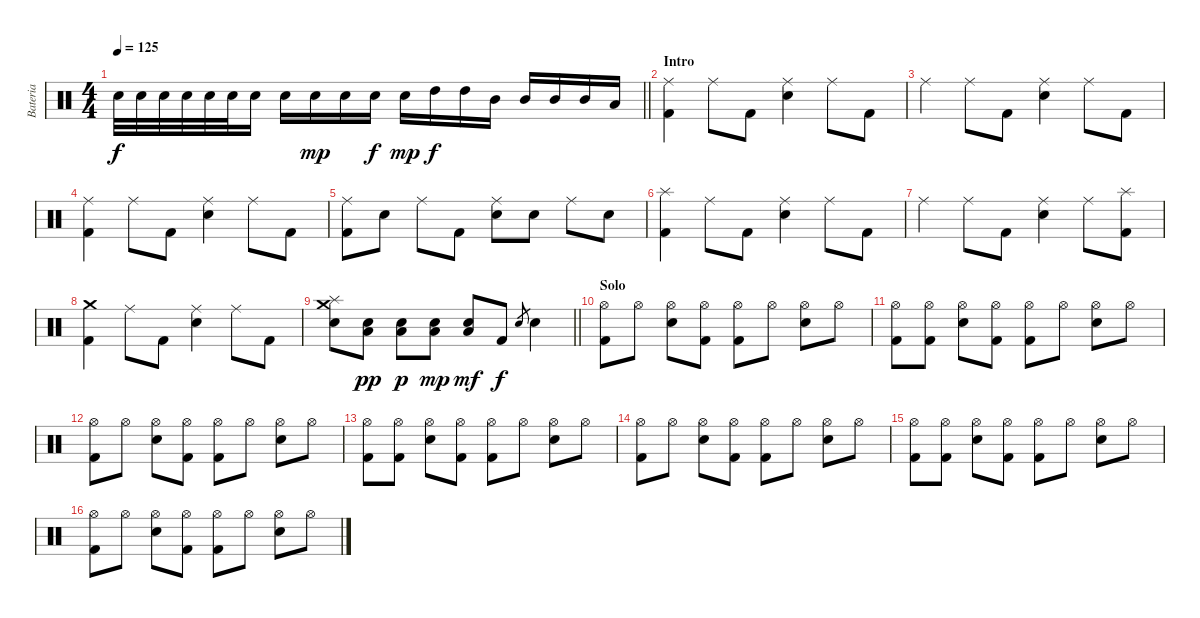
\track ("Bateria" "Bateria") {instrument percussion}
\staff {score}
\articulation defaults
\ts (4 4)
\tempo 125
\clef neutral
\barLineRight lightlight
\ks c "Electric Snare (hit)".32{dy f} "Electric Snare (hit)".32 "Electric Snare (hit)".32 "Electric Snare (hit)".32 "Electric Snare (hit)".32 "Electric Snare (hit)".32 "Electric Snare (hit)".16 "Electric Snare (hit)".16 "Electric Snare (hit)".16{dy mp} "Electric Snare (hit)".16 "Electric Snare (hit)".16{dy f} "Electric Snare (hit)".16{dy mp} "High Tom (hit)".16{dy f} "High Tom (hit)".16 "Mid Tom (hit)".16 "Mid Tom (hit)".16 "Mid Tom (hit)".16 "Mid Tom (hit)".16 "Low Floor Tom (hit)".16
|
\section ("" "Intro")
("Ride (middle)" "Kick (hit) 2").4 "Ride (middle)".8 "Kick (hit) 2".8 ("Ride (middle)" "Electric Snare (hit)").4 "Ride (middle)".8 "Kick (hit) 2".8 |
"Ride (middle)".4 "Ride (middle)".8 "Kick (hit) 2".8 ("Ride (middle)" "Electric Snare (hit)").4 "Ride (middle)".8 "Kick (hit) 2".8 |
("Ride (middle)" "Kick (hit) 2").4 "Ride (middle)".8 "Kick (hit) 2".8 ("Ride (middle)" "Electric Snare (hit)").4 "Ride (middle)".8 "Kick (hit) 2".8 |
("Ride (middle)" "Kick (hit) 2").8 "Electric Snare (hit)".8 "Ride (middle)".8 "Kick (hit) 2".8 ("Ride (middle)" "Electric Snare (hit)").8 "Electric Snare (hit)".8 "Ride (middle)".8 "Electric Snare (hit)".8 |
("Splash (hit)" "Kick (hit) 2").4 "Ride (middle)".8 "Kick (hit) 2".8 ("Ride (middle)" "Electric Snare (hit)").4 "Ride (middle)".8 "Kick (hit) 2".8 |
"Ride (middle)".4 "Ride (middle)".8 "Kick (hit) 2".8 ("Ride (middle)" "Electric Snare (hit)").4 "Ride (middle)".8 ("Splash (hit)" "Kick (hit) 2").8 |
("Crash medium (hit)" "Kick (hit) 2").4 "Ride (middle)".8 "Kick (hit) 2".8 ("Ride (middle)" "Electric Snare (hit)").4 "Ride (middle)".8 "Kick (hit) 2".8 |
\barLineRight lightlight
("Electric Snare (hit)" "Splash (hit)" "Crash medium (hit)").8 ("Electric Snare (hit)" "Low Floor Tom (hit)").8{dy pp} ("Electric Snare (hit)" "Low Floor Tom (hit)").8{dy p} ("Electric Snare (hit)" "Low Floor Tom (hit)").8{dy mp} ("Electric Snare (hit)" "Low Floor Tom (hit)").8{dy mf} "Kick (hit) 2".8{dy f} "Electric Snare (hit)".8{gr} "Electric Snare (hit)".4 |
\section ("" "Solo")
("Hi-Hat (open)" "Kick (hit) 2").8 "Hi-Hat (open)".8 ("Hi-Hat (open)" "Electric Snare (hit)").8 ("Hi-Hat (open)" "Kick (hit) 2").8 ("Hi-Hat (open)" "Kick (hit) 2").8 "Hi-Hat (open)".8 ("Hi-Hat (open)" "Electric Snare (hit)").8 "Hi-Hat (open)".8 |
("Hi-Hat (open)" "Kick (hit) 2").8 ("Hi-Hat (open)" "Kick (hit) 2").8 ("Hi-Hat (open)" "Electric Snare (hit)").8 ("Hi-Hat (open)" "Kick (hit) 2").8 ("Hi-Hat (open)" "Kick (hit) 2").8 "Hi-Hat (open)".8 ("Hi-Hat (open)" "Electric Snare (hit)").8 "Hi-Hat (open)".8 |
("Hi-Hat (open)" "Kick (hit) 2").8 "Hi-Hat (open)".8 ("Hi-Hat (open)" "Electric Snare (hit)").8 ("Hi-Hat (open)" "Kick (hit) 2").8 ("Hi-Hat (open)" "Kick (hit) 2").8 "Hi-Hat (open)".8 ("Hi-Hat (open)" "Electric Snare (hit)").8 "Hi-Hat (open)".8 |
("Hi-Hat (open)" "Kick (hit) 2").8 ("Hi-Hat (open)" "Kick (hit) 2").8 ("Hi-Hat (open)" "Electric Snare (hit)").8 ("Hi-Hat (open)" "Kick (hit) 2").8 ("Hi-Hat (open)" "Kick (hit) 2").8 "Hi-Hat (open)".8 ("Hi-Hat (open)" "Electric Snare (hit)").8 "Hi-Hat (open)".8 |
("Hi-Hat (open)" "Kick (hit) 2").8 "Hi-Hat (open)".8 ("Hi-Hat (open)" "Electric Snare (hit)").8 ("Hi-Hat (open)" "Kick (hit) 2").8 ("Hi-Hat (open)" "Kick (hit) 2").8 "Hi-Hat (open)".8 ("Hi-Hat (open)" "Electric Snare (hit)").8 "Hi-Hat (open)".8 |
("Hi-Hat (open)" "Kick (hit) 2").8 ("Hi-Hat (open)" "Kick (hit) 2").8 ("Hi-Hat (open)" "Electric Snare (hit)").8 ("Hi-Hat (open)" "Kick (hit) 2").8 ("Hi-Hat (open)" "Kick (hit) 2").8 "Hi-Hat (open)".8 ("Hi-Hat (open)" "Electric Snare (hit)").8 "Hi-Hat (open)".8 |
("Hi-Hat (open)" "Kick (hit) 2").8 "Hi-Hat (open)".8 ("Hi-Hat (open)" "Electric Snare (hit)").8 ("Hi-Hat (open)" "Kick (hit) 2").8 ("Hi-Hat (open)" "Kick (hit) 2").8 "Hi-Hat (open)".8 ("Hi-Hat (open)" "Electric Snare (hit)").8 "Hi-Hat (open)".8
